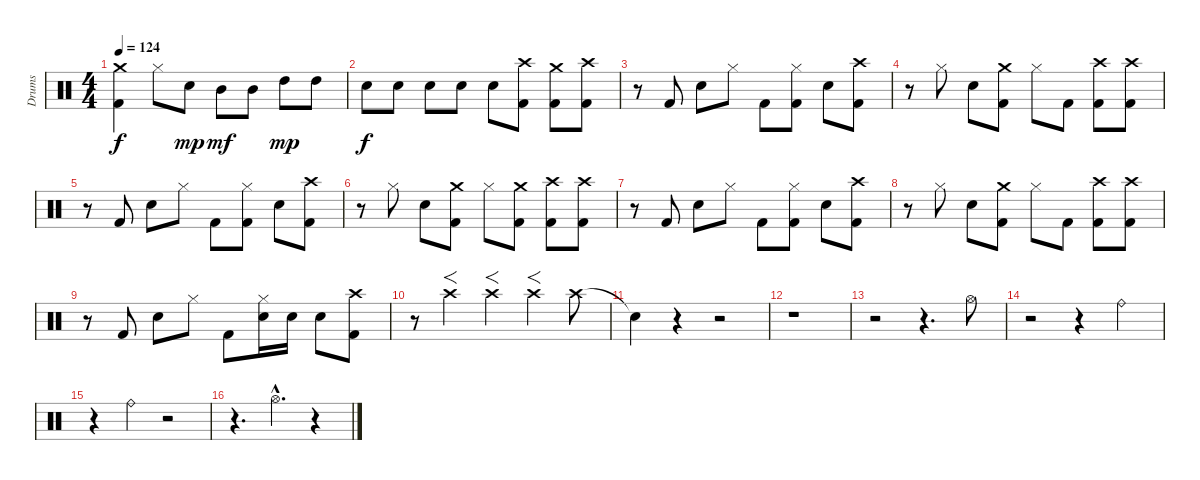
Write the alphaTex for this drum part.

\track ("Drums" "Drums") {instrument percussion}
\staff {score}
\articulation defaults
\ts (4 4)
\tempo 124
\clef neutral
\ks c
("Kick (hit) 2" "Crash medium (hit)").4{dy f} "Hi-Hat (closed)".8 "Snare (hit) 2".8{dy mp} "Mid Tom (hit)".8{dy mf} "Mid Tom (hit)".8 "High Tom (hit)".8{dy mp} "High Tom (hit)".8 |
"Snare (hit) 2".8{dy f} "Snare (hit) 2".8 "Snare (hit) 2".8 "Snare (hit) 2".8 "Snare (hit) 2".8 ("Kick (hit) 2" "Crash high (hit)").8 ("Kick (hit) 2" "Crash medium (hit)").8 ("Kick (hit) 2" "Crash high (hit)").8 |
r.8 "Kick (hit) 2".8 "Snare (hit) 2".8 "Hi-Hat (closed)".8 "Kick (hit) 2".8 ("Kick (hit) 2" "Hi-Hat (closed)").8 "Snare (hit) 2".8 ("Kick (hit) 2" "Crash high (hit)").8 |
r.8 "Hi-Hat (closed)".8 "Snare (hit) 2".8 ("Kick (hit) 2" "Crash medium (hit)").8 "Hi-Hat (closed)".8 "Kick (hit) 2".8 ("Kick (hit) 2" "Crash high (hit)").8 ("Kick (hit) 2" "Crash high (hit)").8 |
r.8 "Kick (hit) 2".8 "Snare (hit) 2".8 "Hi-Hat (closed)".8 "Kick (hit) 2".8 ("Kick (hit) 2" "Hi-Hat (closed)").8 "Snare (hit) 2".8 ("Kick (hit) 2" "Crash high (hit)").8 |
r.8 "Hi-Hat (closed)".8 "Snare (hit) 2".8 ("Kick (hit) 2" "Crash medium (hit)").8 "Hi-Hat (closed)".8 ("Kick (hit) 2" "Crash medium (hit)").8 ("Kick (hit) 2" "Crash high (hit)").8 ("Kick (hit) 2" "Crash high (hit)").8 |
r.8 "Kick (hit) 2".8 "Snare (hit) 2".8 "Hi-Hat (closed)".8 "Kick (hit) 2".8 ("Kick (hit) 2" "Hi-Hat (closed)").8 "Snare (hit) 2".8 ("Kick (hit) 2" "Crash high (hit)").8 |
r.8 "Hi-Hat (closed)".8 "Snare (hit) 2".8 ("Kick (hit) 2" "Crash medium (hit)").8 "Hi-Hat (closed)".8 "Kick (hit) 2".8 ("Kick (hit) 2" "Crash high (hit)").8 ("Kick (hit) 2" "Crash high (hit)").8 |
r.8 "Kick (hit) 2".8 "Snare (hit) 2".8 "Hi-Hat (closed)".8 "Kick (hit) 2".8 ("Snare (hit) 2" "Hi-Hat (closed)").16 "Snare (hit) 2".16 "Snare (hit) 2".8 ("Kick (hit) 2" "Crash high (hit)").8 |
r.8 "Crash high (hit)".4{f} "Crash high (hit)".4{f} "Crash high (hit)".4{f} "Crash high (hit)".8 |
"Snare (hit)"{t}.4 r.4 r.2 |
r.1 |
r.2 r.4{d} "Hi-Hat (open)".8 |
r.2 r.4 "Ride (bell)".4 |
r.4 "Ride (bell)".4 r.2 |
r.4{d} "Hi-Hat (open)"{hac}.4{d} r.4
